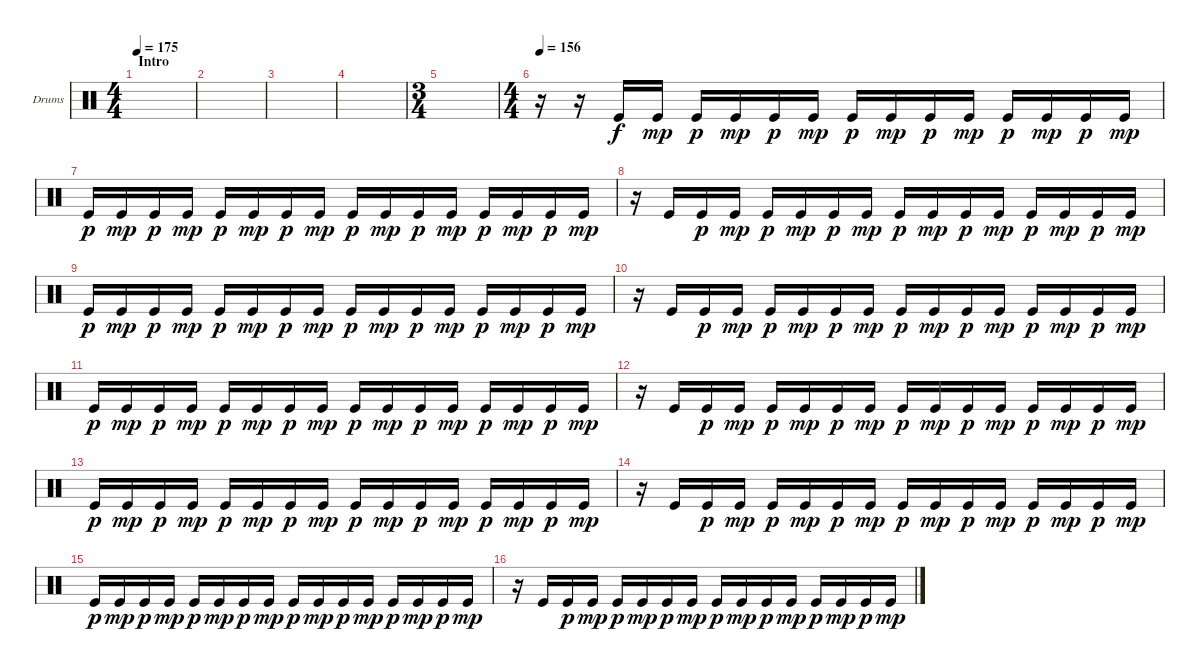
\bracketExtendMode groupsimilarinstruments
\firstSystemTrackNameOrientation horizontal
\otherSystemsTrackNameOrientation horizontal
\track ("Drums Kick" "Drums") {instrument percussion}
\staff {score}
\articulation defaults
\ts (4 4)
\section ("" "Intro")
\tempo 175
\clef neutral
\scale
0.218391
\ks c
|
\scale
0.390805 |
\scale
0.263889 |
\scale
0.263889 |
\ts (3 4)
\scale
0.472222 |
\ts (4 4)
\tempo 156
\scale
0.472222 r.16 r.16 "Kick (hit)".16 "Kick (hit)".16{dy mp} "Kick (hit)".16{dy p} "Kick (hit)".16{dy mp} "Kick (hit)".16{dy p} "Kick (hit)".16{dy mp} "Kick (hit)".16{dy p} "Kick (hit)".16{dy mp} "Kick (hit)".16{dy p} "Kick (hit)".16{dy mp} "Kick (hit)".16{dy p} "Kick (hit)".16{dy mp} "Kick (hit)".16{dy p} "Kick (hit)".16{dy mp} |
\scale
0.263889 "Kick (hit)".16{dy p} "Kick (hit)".16{dy mp} "Kick (hit)".16{dy p} "Kick (hit)".16{dy mp} "Kick (hit)".16{dy p} "Kick (hit)".16{dy mp} "Kick (hit)".16{dy p} "Kick (hit)".16{dy mp} "Kick (hit)".16{dy p} "Kick (hit)".16{dy mp} "Kick (hit)".16{dy p} "Kick (hit)".16{dy mp} "Kick (hit)".16{dy p} "Kick (hit)".16{dy mp} "Kick (hit)".16{dy p} "Kick (hit)".16{dy mp} |
\scale
0.263889 r.16 "Kick (hit)".16 "Kick (hit)".16{dy p} "Kick (hit)".16{dy mp} "Kick (hit)".16{dy p} "Kick (hit)".16{dy mp} "Kick (hit)".16{dy p} "Kick (hit)".16{dy mp} "Kick (hit)".16{dy p} "Kick (hit)".16{dy mp} "Kick (hit)".16{dy p} "Kick (hit)".16{dy mp} "Kick (hit)".16{dy p} "Kick (hit)".16{dy mp} "Kick (hit)".16{dy p} "Kick (hit)".16{dy mp} |
\scale
0.333333 "Kick (hit)".16{dy p} "Kick (hit)".16{dy mp} "Kick (hit)".16{dy p} "Kick (hit)".16{dy mp} "Kick (hit)".16{dy p} "Kick (hit)".16{dy mp} "Kick (hit)".16{dy p} "Kick (hit)".16{dy mp} "Kick (hit)".16{dy p} "Kick (hit)".16{dy mp} "Kick (hit)".16{dy p} "Kick (hit)".16{dy mp} "Kick (hit)".16{dy p} "Kick (hit)".16{dy mp} "Kick (hit)".16{dy p} "Kick (hit)".16{dy mp} |
\scale
0.333333 r.16 "Kick (hit)".16 "Kick (hit)".16{dy p} "Kick (hit)".16{dy mp} "Kick (hit)".16{dy p} "Kick (hit)".16{dy mp} "Kick (hit)".16{dy p} "Kick (hit)".16{dy mp} "Kick (hit)".16{dy p} "Kick (hit)".16{dy mp} "Kick (hit)".16{dy p} "Kick (hit)".16{dy mp} "Kick (hit)".16{dy p} "Kick (hit)".16{dy mp} "Kick (hit)".16{dy p} "Kick (hit)".16{dy mp} |
\scale
0.333333 "Kick (hit)".16{dy p} "Kick (hit)".16{dy mp} "Kick (hit)".16{dy p} "Kick (hit)".16{dy mp} "Kick (hit)".16{dy p} "Kick (hit)".16{dy mp} "Kick (hit)".16{dy p} "Kick (hit)".16{dy mp} "Kick (hit)".16{dy p} "Kick (hit)".16{dy mp} "Kick (hit)".16{dy p} "Kick (hit)".16{dy mp} "Kick (hit)".16{dy p} "Kick (hit)".16{dy mp} "Kick (hit)".16{dy p} "Kick (hit)".16{dy mp} |
\scale
0.333333 r.16 "Kick (hit)".16 "Kick (hit)".16{dy p} "Kick (hit)".16{dy mp} "Kick (hit)".16{dy p} "Kick (hit)".16{dy mp} "Kick (hit)".16{dy p} "Kick (hit)".16{dy mp} "Kick (hit)".16{dy p} "Kick (hit)".16{dy mp} "Kick (hit)".16{dy p} "Kick (hit)".16{dy mp} "Kick (hit)".16{dy p} "Kick (hit)".16{dy mp} "Kick (hit)".16{dy p} "Kick (hit)".16{dy mp} |
\scale
0.333333 "Kick (hit)".16{dy p} "Kick (hit)".16{dy mp} "Kick (hit)".16{dy p} "Kick (hit)".16{dy mp} "Kick (hit)".16{dy p} "Kick (hit)".16{dy mp} "Kick (hit)".16{dy p} "Kick (hit)".16{dy mp} "Kick (hit)".16{dy p} "Kick (hit)".16{dy mp} "Kick (hit)".16{dy p} "Kick (hit)".16{dy mp} "Kick (hit)".16{dy p} "Kick (hit)".16{dy mp} "Kick (hit)".16{dy p} "Kick (hit)".16{dy mp} |
\scale
0.333333 r.16 "Kick (hit)".16 "Kick (hit)".16{dy p} "Kick (hit)".16{dy mp} "Kick (hit)".16{dy p} "Kick (hit)".16{dy mp} "Kick (hit)".16{dy p} "Kick (hit)".16{dy mp} "Kick (hit)".16{dy p} "Kick (hit)".16{dy mp} "Kick (hit)".16{dy p} "Kick (hit)".16{dy mp} "Kick (hit)".16{dy p} "Kick (hit)".16{dy mp} "Kick (hit)".16{dy p} "Kick (hit)".16{dy mp} |
\scale
0.333333 "Kick (hit)".16{dy p} "Kick (hit)".16{dy mp} "Kick (hit)".16{dy p} "Kick (hit)".16{dy mp} "Kick (hit)".16{dy p} "Kick (hit)".16{dy mp} "Kick (hit)".16{dy p} "Kick (hit)".16{dy mp} "Kick (hit)".16{dy p} "Kick (hit)".16{dy mp} "Kick (hit)".16{dy p} "Kick (hit)".16{dy mp} "Kick (hit)".16{dy p} "Kick (hit)".16{dy mp} "Kick (hit)".16{dy p} "Kick (hit)".16{dy mp} |
\scale
0.333333 r.16 "Kick (hit)".16 "Kick (hit)".16{dy p} "Kick (hit)".16{dy mp} "Kick (hit)".16{dy p} "Kick (hit)".16{dy mp} "Kick (hit)".16{dy p} "Kick (hit)".16{dy mp} "Kick (hit)".16{dy p} "Kick (hit)".16{dy mp} "Kick (hit)".16{dy p} "Kick (hit)".16{dy mp} "Kick (hit)".16{dy p} "Kick (hit)".16{dy mp} "Kick (hit)".16{dy p} "Kick (hit)".16{dy mp}
